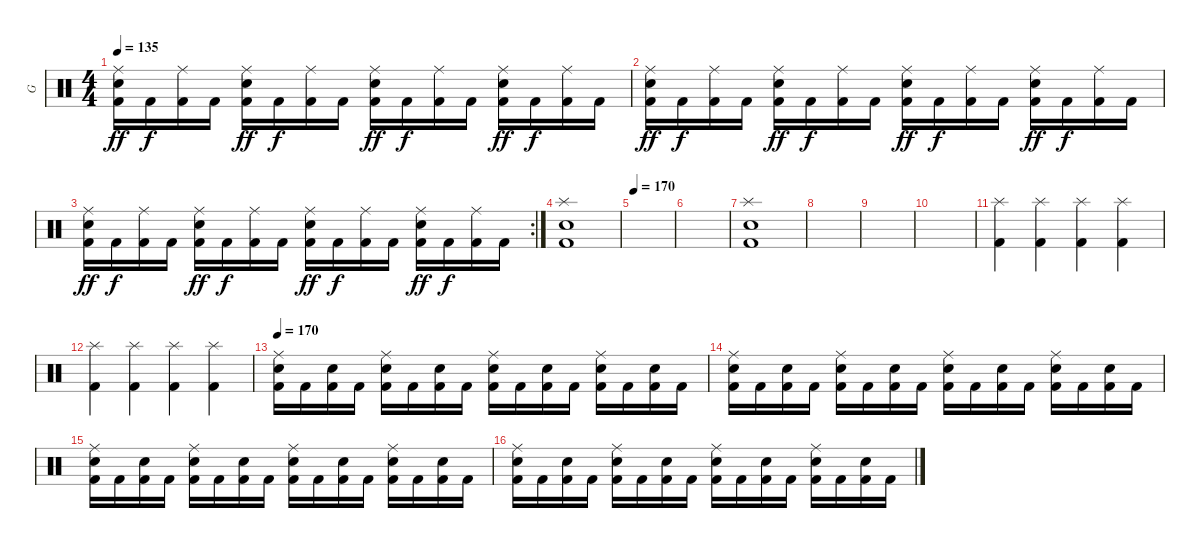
\track ("G" "G") {instrument percussion}
\staff {score}
\articulation defaults
\ts (4 4)
\tempo 135
\clef neutral
\ks c
("Ride (middle)" "Electric Snare (hit)" "Kick (hit) 2").16{dy ff} "Kick (hit) 2".16{dy f} ("Ride (middle)" "Kick (hit) 2").16 "Kick (hit) 2".16 ("Ride (middle)" "Electric Snare (hit)" "Kick (hit) 2").16{dy ff} "Kick (hit) 2".16{dy f} ("Ride (middle)" "Kick (hit) 2").16 "Kick (hit) 2".16 ("Ride (middle)" "Electric Snare (hit)" "Kick (hit) 2").16{dy ff} "Kick (hit) 2".16{dy f} ("Ride (middle)" "Kick (hit) 2").16 "Kick (hit) 2".16 ("Ride (middle)" "Electric Snare (hit)" "Kick (hit) 2").16{dy ff} "Kick (hit) 2".16{dy f} ("Ride (middle)" "Kick (hit) 2").16 "Kick (hit) 2".16 |
("Ride (middle)" "Electric Snare (hit)" "Kick (hit) 2").16{dy ff} "Kick (hit) 2".16{dy f} ("Ride (middle)" "Kick (hit) 2").16 "Kick (hit) 2".16 ("Ride (middle)" "Electric Snare (hit)" "Kick (hit) 2").16{dy ff} "Kick (hit) 2".16{dy f} ("Ride (middle)" "Kick (hit) 2").16 "Kick (hit) 2".16 ("Ride (middle)" "Electric Snare (hit)" "Kick (hit) 2").16{dy ff} "Kick (hit) 2".16{dy f} ("Ride (middle)" "Kick (hit) 2").16 "Kick (hit) 2".16 ("Ride (middle)" "Electric Snare (hit)" "Kick (hit) 2").16{dy ff} "Kick (hit) 2".16{dy f} ("Ride (middle)" "Kick (hit) 2").16 "Kick (hit) 2".16 |
\rc 2
("Ride (middle)" "Electric Snare (hit)" "Kick (hit) 2").16{dy ff} "Kick (hit) 2".16{dy f} ("Ride (middle)" "Kick (hit) 2").16 "Kick (hit) 2".16 ("Ride (middle)" "Electric Snare (hit)" "Kick (hit) 2").16{dy ff} "Kick (hit) 2".16{dy f} ("Ride (middle)" "Kick (hit) 2").16 "Kick (hit) 2".16 ("Ride (middle)" "Electric Snare (hit)" "Kick (hit) 2").16{dy ff} "Kick (hit) 2".16{dy f} ("Ride (middle)" "Kick (hit) 2").16 "Kick (hit) 2".16 ("Ride (middle)" "Electric Snare (hit)" "Kick (hit) 2").16{dy ff} "Kick (hit) 2".16{dy f} ("Ride (middle)" "Kick (hit) 2").16 "Kick (hit) 2".16 |
("Splash (hit)" "Electric Snare (hit)" "Kick (hit) 2").1 |
\tempo 170
|
|
("Splash (hit)" "Electric Snare (hit)" "Kick (hit) 2").1 |
|
|
|
("Splash (hit)" "Kick (hit) 2").4 ("Splash (hit)" "Kick (hit) 2").4 ("Splash (hit)" "Kick (hit) 2").4 ("Splash (hit)" "Kick (hit) 2").4 |
("Splash (hit)" "Kick (hit) 2").4 ("Splash (hit)" "Kick (hit) 2").4 ("Splash (hit)" "Kick (hit) 2").4 ("Splash (hit)" "Kick (hit) 2").4 |
\tempo 170
("Ride (middle)" "Electric Snare (hit)" "Kick (hit) 2").16 "Kick (hit) 2".16 ("Electric Snare (hit)" "Kick (hit) 2").16 "Kick (hit) 2".16 ("Ride (middle)" "Electric Snare (hit)" "Kick (hit) 2").16 "Kick (hit) 2".16 ("Electric Snare (hit)" "Kick (hit) 2").16 "Kick (hit) 2".16 ("Ride (middle)" "Electric Snare (hit)" "Kick (hit) 2").16 "Kick (hit) 2".16 ("Electric Snare (hit)" "Kick (hit) 2").16 "Kick (hit) 2".16 ("Ride (middle)" "Electric Snare (hit)" "Kick (hit) 2").16 "Kick (hit) 2".16 ("Electric Snare (hit)" "Kick (hit) 2").16 "Kick (hit) 2".16 |
("Ride (middle)" "Electric Snare (hit)" "Kick (hit) 2").16 "Kick (hit) 2".16 ("Electric Snare (hit)" "Kick (hit) 2").16 "Kick (hit) 2".16 ("Ride (middle)" "Electric Snare (hit)" "Kick (hit) 2").16 "Kick (hit) 2".16 ("Electric Snare (hit)" "Kick (hit) 2").16 "Kick (hit) 2".16 ("Ride (middle)" "Electric Snare (hit)" "Kick (hit) 2").16 "Kick (hit) 2".16 ("Electric Snare (hit)" "Kick (hit) 2").16 "Kick (hit) 2".16 ("Ride (middle)" "Electric Snare (hit)" "Kick (hit) 2").16 "Kick (hit) 2".16 ("Electric Snare (hit)" "Kick (hit) 2").16 "Kick (hit) 2".16 |
("Ride (middle)" "Electric Snare (hit)" "Kick (hit) 2").16 "Kick (hit) 2".16 ("Electric Snare (hit)" "Kick (hit) 2").16 "Kick (hit) 2".16 ("Ride (middle)" "Electric Snare (hit)" "Kick (hit) 2").16 "Kick (hit) 2".16 ("Electric Snare (hit)" "Kick (hit) 2").16 "Kick (hit) 2".16 ("Ride (middle)" "Electric Snare (hit)" "Kick (hit) 2").16 "Kick (hit) 2".16 ("Electric Snare (hit)" "Kick (hit) 2").16 "Kick (hit) 2".16 ("Ride (middle)" "Electric Snare (hit)" "Kick (hit) 2").16 "Kick (hit) 2".16 ("Electric Snare (hit)" "Kick (hit) 2").16 "Kick (hit) 2".16 |
("Ride (middle)" "Electric Snare (hit)" "Kick (hit) 2").16 "Kick (hit) 2".16 ("Electric Snare (hit)" "Kick (hit) 2").16 "Kick (hit) 2".16 ("Ride (middle)" "Electric Snare (hit)" "Kick (hit) 2").16 "Kick (hit) 2".16 ("Electric Snare (hit)" "Kick (hit) 2").16 "Kick (hit) 2".16 ("Ride (middle)" "Electric Snare (hit)" "Kick (hit) 2").16 "Kick (hit) 2".16 ("Electric Snare (hit)" "Kick (hit) 2").16 "Kick (hit) 2".16 ("Ride (middle)" "Electric Snare (hit)" "Kick (hit) 2").16 "Kick (hit) 2".16 ("Electric Snare (hit)" "Kick (hit) 2").16 "Kick (hit) 2".16
